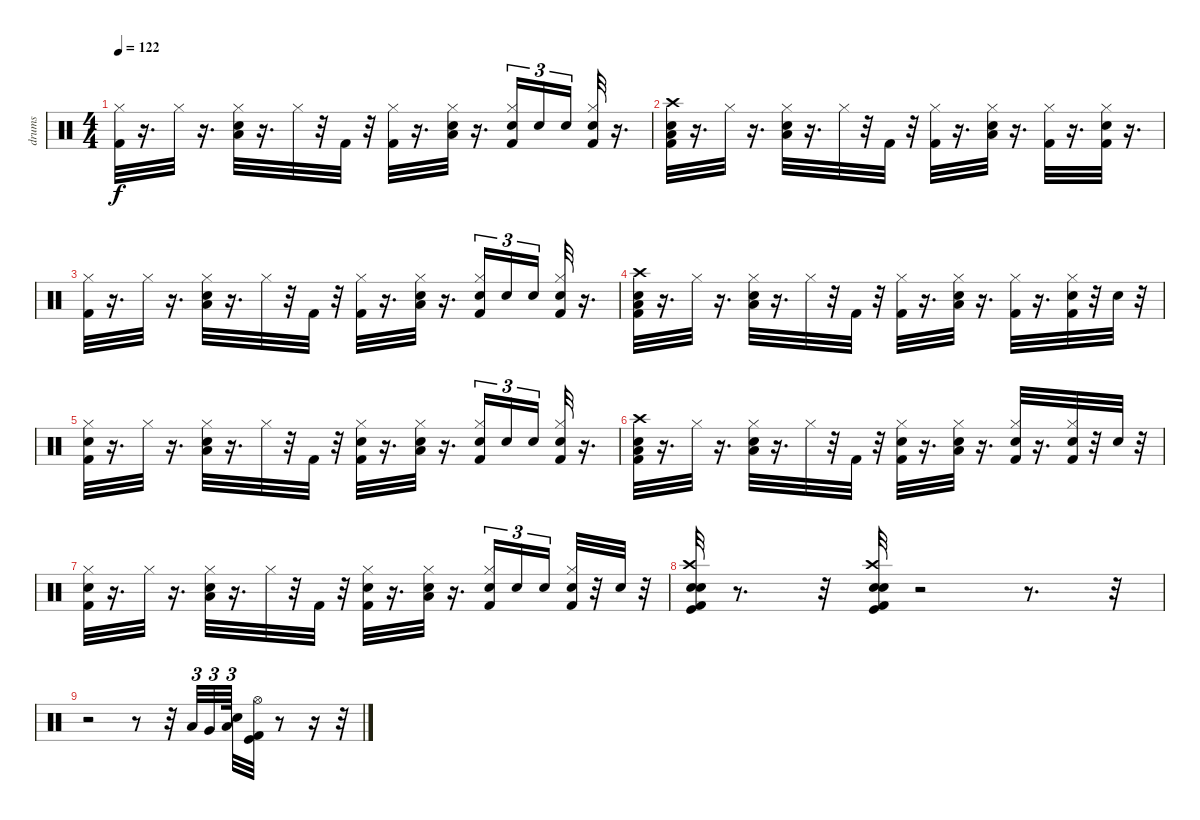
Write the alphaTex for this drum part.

\track ("drums" "drums") {instrument percussion}
\staff {score}
\articulation defaults
\ts (4 4)
\tempo 122
\clef neutral
\ks c
("Kick (hit) 2" "Hi-Hat (closed)").32{dy f} r.16{d} "Hi-Hat (closed)".32 r.16{d} ("Low Floor Tom (hit)" "Hi-Hat (closed)" "Snare (hit) 2").32 r.16{d} "Hi-Hat (closed)".32 r.32 "Kick (hit) 2".32 r.32 ("Hi-Hat (closed)" "Kick (hit) 2").32 r.16{d} ("Low Floor Tom (hit)" "Hi-Hat (closed)" "Snare (hit) 2").32 r.16{d} ("Snare (hit) 2" "Hi-Hat (closed)" "Kick (hit) 2").16{tu (3 2)} "Snare (hit) 2".16{tu (3 2)} "Snare (hit) 2".16{tu (3 2)} ("Snare (hit) 2" "Hi-Hat (closed)" "Kick (hit) 2").32 r.16{d} |
("Low Floor Tom (hit)" "Snare (hit) 2" "Kick (hit) 2" "Crash high (hit)").32 r.16{d} "Hi-Hat (closed)".32 r.16{d} ("Low Floor Tom (hit)" "Hi-Hat (closed)" "Snare (hit) 2").32 r.16{d} "Hi-Hat (closed)".32 r.32 "Kick (hit) 2".32 r.32 ("Hi-Hat (closed)" "Kick (hit) 2").32 r.16{d} ("Low Floor Tom (hit)" "Hi-Hat (closed)" "Snare (hit) 2").32 r.16{d} ("Hi-Hat (closed)" "Kick (hit) 2").32 r.16{d} ("Snare (hit) 2" "Hi-Hat (closed)" "Kick (hit) 2").32 r.16{d} |
("Kick (hit) 2" "Hi-Hat (closed)").32 r.16{d} "Hi-Hat (closed)".32 r.16{d} ("Low Floor Tom (hit)" "Hi-Hat (closed)" "Snare (hit) 2").32 r.16{d} "Hi-Hat (closed)".32 r.32 "Kick (hit) 2".32 r.32 ("Hi-Hat (closed)" "Kick (hit) 2").32 r.16{d} ("Low Floor Tom (hit)" "Hi-Hat (closed)" "Snare (hit) 2").32 r.16{d} ("Snare (hit) 2" "Hi-Hat (closed)" "Kick (hit) 2").16{tu (3 2)} "Snare (hit) 2".16{tu (3 2)} "Snare (hit) 2".16{tu (3 2)} ("Snare (hit) 2" "Hi-Hat (closed)" "Kick (hit) 2").32 r.16{d} |
("Low Floor Tom (hit)" "Snare (hit) 2" "Kick (hit) 2" "Crash high (hit)").32 r.16{d} "Hi-Hat (closed)".32 r.16{d} ("Low Floor Tom (hit)" "Hi-Hat (closed)" "Snare (hit) 2").32 r.16{d} "Hi-Hat (closed)".32 r.32 "Kick (hit) 2".32 r.32 ("Hi-Hat (closed)" "Kick (hit) 2").32 r.16{d} ("Low Floor Tom (hit)" "Hi-Hat (closed)" "Snare (hit) 2").32 r.16{d} ("Hi-Hat (closed)" "Kick (hit) 2").32 r.16{d} ("Snare (hit) 2" "Hi-Hat (closed)" "Kick (hit) 2").32 r.32 "Snare (hit) 2".32 r.32 |
("Snare (hit) 2" "Kick (hit) 2" "Hi-Hat (closed)").32 r.16{d} "Hi-Hat (closed)".32 r.16{d} ("Low Floor Tom (hit)" "Hi-Hat (closed)" "Snare (hit) 2").32 r.16{d} "Hi-Hat (closed)".32 r.32 "Kick (hit) 2".32 r.32 ("Snare (hit) 2" "Hi-Hat (closed)" "Kick (hit) 2").32 r.16{d} ("Low Floor Tom (hit)" "Hi-Hat (closed)" "Snare (hit) 2").32 r.16{d} ("Snare (hit) 2" "Hi-Hat (closed)" "Kick (hit) 2").16{tu (3 2)} "Snare (hit) 2".16{tu (3 2)} "Snare (hit) 2".16{tu (3 2)} ("Snare (hit) 2" "Hi-Hat (closed)" "Kick (hit) 2").32 r.16{d} |
("Low Floor Tom (hit)" "Snare (hit) 2" "Kick (hit) 2" "Crash high (hit)").32 r.16{d} "Hi-Hat (closed)".32 r.16{d} ("Low Floor Tom (hit)" "Hi-Hat (closed)" "Snare (hit) 2").32 r.16{d} "Hi-Hat (closed)".32 r.32 "Kick (hit) 2".32 r.32 ("Snare (hit) 2" "Hi-Hat (closed)" "Kick (hit) 2").32 r.16{d} ("Low Floor Tom (hit)" "Hi-Hat (closed)" "Snare (hit) 2").32 r.16{d} ("Snare (hit) 2" "Hi-Hat (closed)" "Kick (hit) 2").32 r.16{d} ("Snare (hit) 2" "Hi-Hat (closed)" "Kick (hit) 2").32 r.32 "Snare (hit) 2".32 r.32 |
("Snare (hit) 2" "Kick (hit) 2" "Hi-Hat (closed)").32 r.16{d} "Hi-Hat (closed)".32 r.16{d} ("Low Floor Tom (hit)" "Hi-Hat (closed)" "Snare (hit) 2").32 r.16{d} "Hi-Hat (closed)".32 r.32 "Kick (hit) 2".32 r.32 ("Snare (hit) 2" "Hi-Hat (closed)" "Kick (hit) 2").32 r.16{d} ("Low Floor Tom (hit)" "Hi-Hat (closed)" "Snare (hit) 2").32 r.16{d} ("Snare (hit) 2" "Hi-Hat (closed)" "Kick (hit) 2").16{tu (3 2)} "Snare (hit) 2".16{tu (3 2)} "Snare (hit) 2".16{tu (3 2)} ("Snare (hit) 2" "Hi-Hat (closed)" "Kick (hit) 2").32 r.32 "Snare (hit) 2".32 r.32 |
("Crash high (hit)" "Hand Clap (hit)" "Kick (hit)" "Kick (hit) 2" "Snare (hit) 2").32 r.8{d} r.32 ("Crash high (hit)" "Hand Clap (hit)" "Kick (hit)" "Kick (hit) 2" "Snare (hit) 2").32 r.2 r.8{d} r.32 |
r.2 r.8 r.32 "Low Tom (hit)".32{tu (3 2)} "Very Low Tom (hit)".32{tu (3 2)} "Low Floor Tom (hit)".64{tu (3 2)} "Snare (hit) 2".32 ("Hi-Hat (open)" "Kick (hit)" "Kick (hit) 2").32 r.8 r.16 r.32
